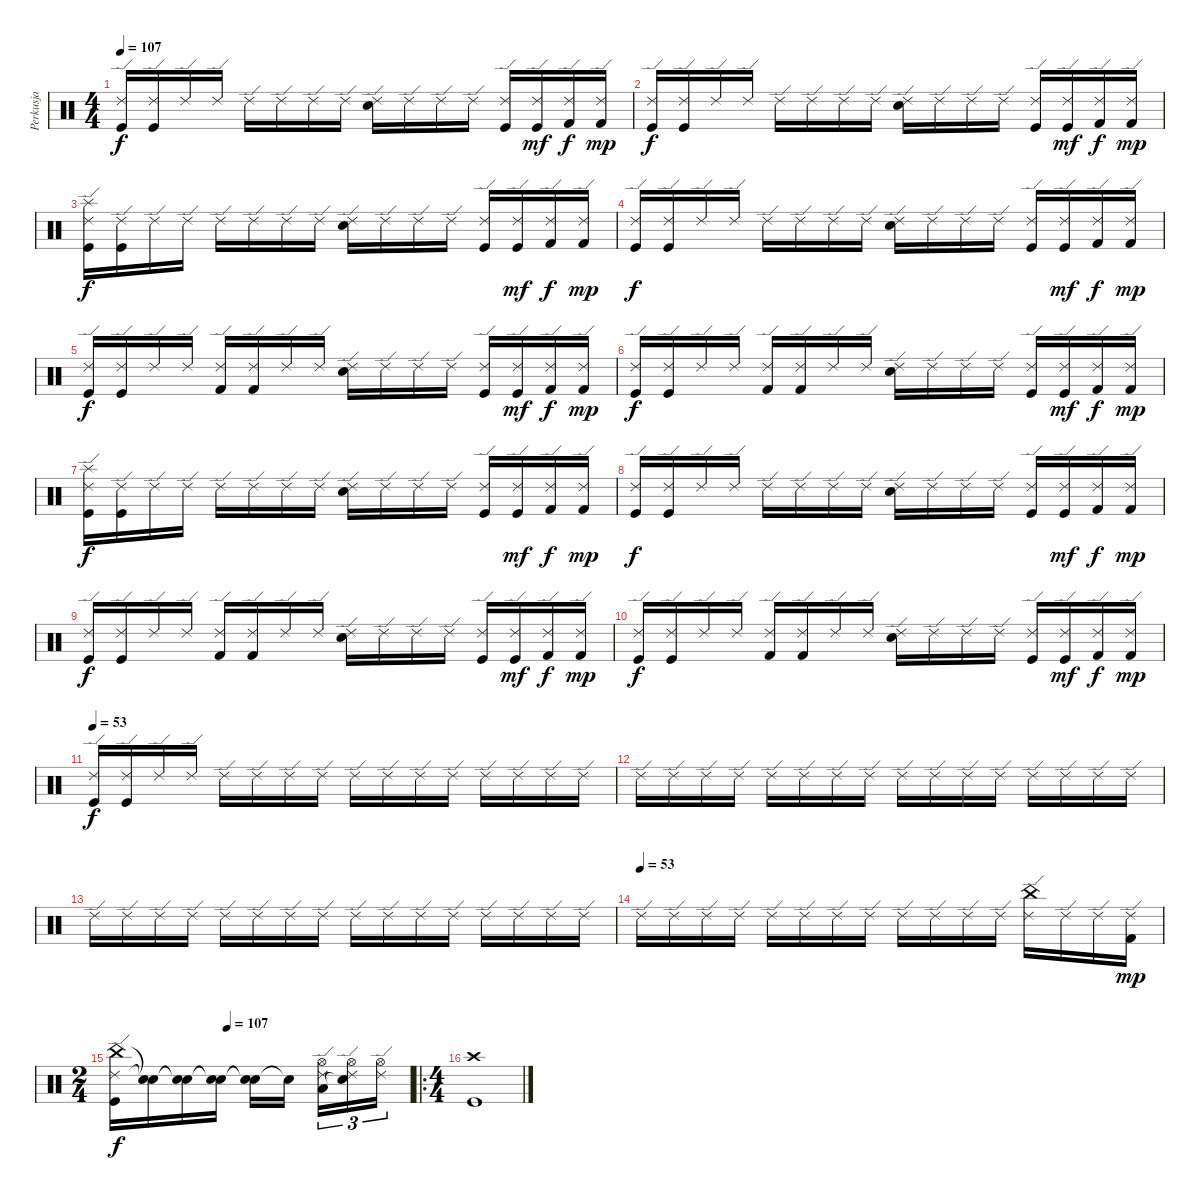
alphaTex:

\track ("Perkusja" "Perkusja") {instrument percussion}
\staff {score}
\articulation defaults
\ts (4 4)
\tempo 107
\clef neutral
\ks c
("Ride (edge) 2" "Kick (hit)").16{dy f} ("Ride (edge) 2" "Kick (hit)").16 "Ride (edge) 2".16 "Ride (edge) 2".16 "Ride (edge) 2".16 "Ride (edge) 2".16 "Ride (edge) 2".16 "Ride (edge) 2".16 ("Ride (edge) 2" "Electric Snare (hit)").16 "Ride (edge) 2".16 "Ride (edge) 2".16 "Ride (edge) 2".16 ("Ride (edge) 2" "Kick (hit)").16 ("Ride (edge) 2" "Kick (hit)").16{dy mf} ("Ride (edge) 2" "Kick (hit) 2").16{dy f} ("Ride (edge) 2" "Kick (hit) 2").16{dy mp} |
("Ride (edge) 2" "Kick (hit)").16{dy f} ("Ride (edge) 2" "Kick (hit)").16 "Ride (edge) 2".16 "Ride (edge) 2".16 "Ride (edge) 2".16 "Ride (edge) 2".16 "Ride (edge) 2".16 "Ride (edge) 2".16 ("Ride (edge) 2" "Electric Snare (hit)").16 "Ride (edge) 2".16 "Ride (edge) 2".16 "Ride (edge) 2".16 ("Ride (edge) 2" "Kick (hit)").16 ("Ride (edge) 2" "Kick (hit)").16{dy mf} ("Ride (edge) 2" "Kick (hit) 2").16{dy f} ("Ride (edge) 2" "Kick (hit) 2").16{dy mp} |
("Ride (edge) 2" "Splash (hit)" "Kick (hit)").16{dy f} ("Ride (edge) 2" "Kick (hit)").16 "Ride (edge) 2".16 "Ride (edge) 2".16 "Ride (edge) 2".16 "Ride (edge) 2".16 "Ride (edge) 2".16 "Ride (edge) 2".16 ("Ride (edge) 2" "Electric Snare (hit)").16 "Ride (edge) 2".16 "Ride (edge) 2".16 "Ride (edge) 2".16 ("Ride (edge) 2" "Kick (hit)").16 ("Ride (edge) 2" "Kick (hit)").16{dy mf} ("Ride (edge) 2" "Kick (hit) 2").16{dy f} ("Ride (edge) 2" "Kick (hit) 2").16{dy mp} |
("Ride (edge) 2" "Kick (hit)").16{dy f} ("Ride (edge) 2" "Kick (hit)").16 "Ride (edge) 2".16 "Ride (edge) 2".16 "Ride (edge) 2".16 "Ride (edge) 2".16 "Ride (edge) 2".16 "Ride (edge) 2".16 ("Ride (edge) 2" "Electric Snare (hit)").16 "Ride (edge) 2".16 "Ride (edge) 2".16 "Ride (edge) 2".16 ("Ride (edge) 2" "Kick (hit)").16 ("Ride (edge) 2" "Kick (hit)").16{dy mf} ("Ride (edge) 2" "Kick (hit) 2").16{dy f} ("Ride (edge) 2" "Kick (hit) 2").16{dy mp} |
("Ride (edge) 2" "Kick (hit)").16{dy f} ("Ride (edge) 2" "Kick (hit)").16 "Ride (edge) 2".16 "Ride (edge) 2".16 ("Ride (edge) 2" "Kick (hit) 2").16 ("Ride (edge) 2" "Kick (hit) 2").16 "Ride (edge) 2".16 "Ride (edge) 2".16 ("Ride (edge) 2" "Electric Snare (hit)").16 "Ride (edge) 2".16 "Ride (edge) 2".16 "Ride (edge) 2".16 ("Ride (edge) 2" "Kick (hit)").16 ("Ride (edge) 2" "Kick (hit)").16{dy mf} ("Ride (edge) 2" "Kick (hit) 2").16{dy f} ("Ride (edge) 2" "Kick (hit) 2").16{dy mp} |
("Ride (edge) 2" "Kick (hit)").16{dy f} ("Ride (edge) 2" "Kick (hit)").16 "Ride (edge) 2".16 "Ride (edge) 2".16 ("Ride (edge) 2" "Kick (hit) 2").16 ("Ride (edge) 2" "Kick (hit) 2").16 "Ride (edge) 2".16 "Ride (edge) 2".16 ("Ride (edge) 2" "Electric Snare (hit)").16 "Ride (edge) 2".16 "Ride (edge) 2".16 "Ride (edge) 2".16 ("Ride (edge) 2" "Kick (hit)").16 ("Ride (edge) 2" "Kick (hit)").16{dy mf} ("Ride (edge) 2" "Kick (hit) 2").16{dy f} ("Ride (edge) 2" "Kick (hit) 2").16{dy mp} |
("Ride (edge) 2" "Splash (hit)" "Kick (hit)").16{dy f} ("Ride (edge) 2" "Kick (hit)").16 "Ride (edge) 2".16 "Ride (edge) 2".16 "Ride (edge) 2".16 "Ride (edge) 2".16 "Ride (edge) 2".16 "Ride (edge) 2".16 ("Ride (edge) 2" "Electric Snare (hit)").16 "Ride (edge) 2".16 "Ride (edge) 2".16 "Ride (edge) 2".16 ("Ride (edge) 2" "Kick (hit)").16 ("Ride (edge) 2" "Kick (hit)").16{dy mf} ("Ride (edge) 2" "Kick (hit) 2").16{dy f} ("Ride (edge) 2" "Kick (hit) 2").16{dy mp} |
("Ride (edge) 2" "Kick (hit)").16{dy f} ("Ride (edge) 2" "Kick (hit)").16 "Ride (edge) 2".16 "Ride (edge) 2".16 "Ride (edge) 2".16 "Ride (edge) 2".16 "Ride (edge) 2".16 "Ride (edge) 2".16 ("Ride (edge) 2" "Electric Snare (hit)").16 "Ride (edge) 2".16 "Ride (edge) 2".16 "Ride (edge) 2".16 ("Ride (edge) 2" "Kick (hit)").16 ("Ride (edge) 2" "Kick (hit)").16{dy mf} ("Ride (edge) 2" "Kick (hit) 2").16{dy f} ("Ride (edge) 2" "Kick (hit) 2").16{dy mp} |
("Ride (edge) 2" "Kick (hit)").16{dy f} ("Ride (edge) 2" "Kick (hit)").16 "Ride (edge) 2".16 "Ride (edge) 2".16 ("Ride (edge) 2" "Kick (hit) 2").16 ("Ride (edge) 2" "Kick (hit) 2").16 "Ride (edge) 2".16 "Ride (edge) 2".16 ("Ride (edge) 2" "Electric Snare (hit)").16 "Ride (edge) 2".16 "Ride (edge) 2".16 "Ride (edge) 2".16 ("Ride (edge) 2" "Kick (hit)").16 ("Ride (edge) 2" "Kick (hit)").16{dy mf} ("Ride (edge) 2" "Kick (hit) 2").16{dy f} ("Ride (edge) 2" "Kick (hit) 2").16{dy mp} |
("Ride (edge) 2" "Kick (hit)").16{dy f} ("Ride (edge) 2" "Kick (hit)").16 "Ride (edge) 2".16 "Ride (edge) 2".16 ("Ride (edge) 2" "Kick (hit) 2").16 ("Ride (edge) 2" "Kick (hit) 2").16 "Ride (edge) 2".16 "Ride (edge) 2".16 ("Ride (edge) 2" "Electric Snare (hit)").16 "Ride (edge) 2".16 "Ride (edge) 2".16 "Ride (edge) 2".16 ("Ride (edge) 2" "Kick (hit)").16 ("Ride (edge) 2" "Kick (hit)").16{dy mf} ("Ride (edge) 2" "Kick (hit) 2").16{dy f} ("Ride (edge) 2" "Kick (hit) 2").16{dy mp} |
\tempo 53
("Ride (edge) 2" "Kick (hit)").16{dy f} ("Ride (edge) 2" "Kick (hit)").16 "Ride (edge) 2".16 "Ride (edge) 2".16 "Ride (edge) 2".16 "Ride (edge) 2".16 "Ride (edge) 2".16 "Ride (edge) 2".16 "Ride (edge) 2".16 "Ride (edge) 2".16 "Ride (edge) 2".16 "Ride (edge) 2".16 "Ride (edge) 2".16 "Ride (edge) 2".16 "Ride (edge) 2".16 "Ride (edge) 2".16 |
"Ride (edge) 2".16 "Ride (edge) 2".16 "Ride (edge) 2".16 "Ride (edge) 2".16 "Ride (edge) 2".16 "Ride (edge) 2".16 "Ride (edge) 2".16 "Ride (edge) 2".16 "Ride (edge) 2".16 "Ride (edge) 2".16 "Ride (edge) 2".16 "Ride (edge) 2".16 "Ride (edge) 2".16 "Ride (edge) 2".16 "Ride (edge) 2".16 "Ride (edge) 2".16 |
"Ride (edge) 2".16 "Ride (edge) 2".16 "Ride (edge) 2".16 "Ride (edge) 2".16 "Ride (edge) 2".16 "Ride (edge) 2".16 "Ride (edge) 2".16 "Ride (edge) 2".16 "Ride (edge) 2".16 "Ride (edge) 2".16 "Ride (edge) 2".16 "Ride (edge) 2".16 "Ride (edge) 2".16 "Ride (edge) 2".16 "Ride (edge) 2".16 "Ride (edge) 2".16 |
\tempo (53)
"Ride (edge) 2".16 "Ride (edge) 2".16 "Ride (edge) 2".16 "Ride (edge) 2".16 "Ride (edge) 2".16 "Ride (edge) 2".16 "Ride (edge) 2".16 "Ride (edge) 2".16 "Ride (edge) 2".16 "Ride (edge) 2".16 "Ride (edge) 2".16 "Ride (edge) 2".16 ("Ride (edge) 2" "China (hit)").16 "Ride (edge) 2".16 "Ride (edge) 2".16 ("Ride (edge) 2" "Kick (hit) 2").16{dy mp} |
\ts (2 4)
\tempo (107 0.375)
("Ride (edge) 2" "China (hit)" "Kick (hit)").16{dy f} ("Snare (hit)"{t} "Snare (hit)"{t}).16 ("Snare (hit)"{t} "Snare (hit)"{t}).16 ("Snare (hit)"{t} "Snare (hit)"{t}).16 ("Snare (hit)"{t} "Snare (hit)"{t}).16 "Snare (hit)"{t}.16 ("Ride (edge) 2" "Hi-Hat (open)" "Low Floor Tom (hit)").16{tu (3 2)} ("Ride (edge) 2" "Hi-Hat (open)" "Snare (hit)"{t}).16{tu (3 2)} ("Ride (edge) 2" "Hi-Hat (open)").16{tu (3 2)} |
\ro
\ts (4 4)
("Crash high (hit)" "Kick (hit)").1
